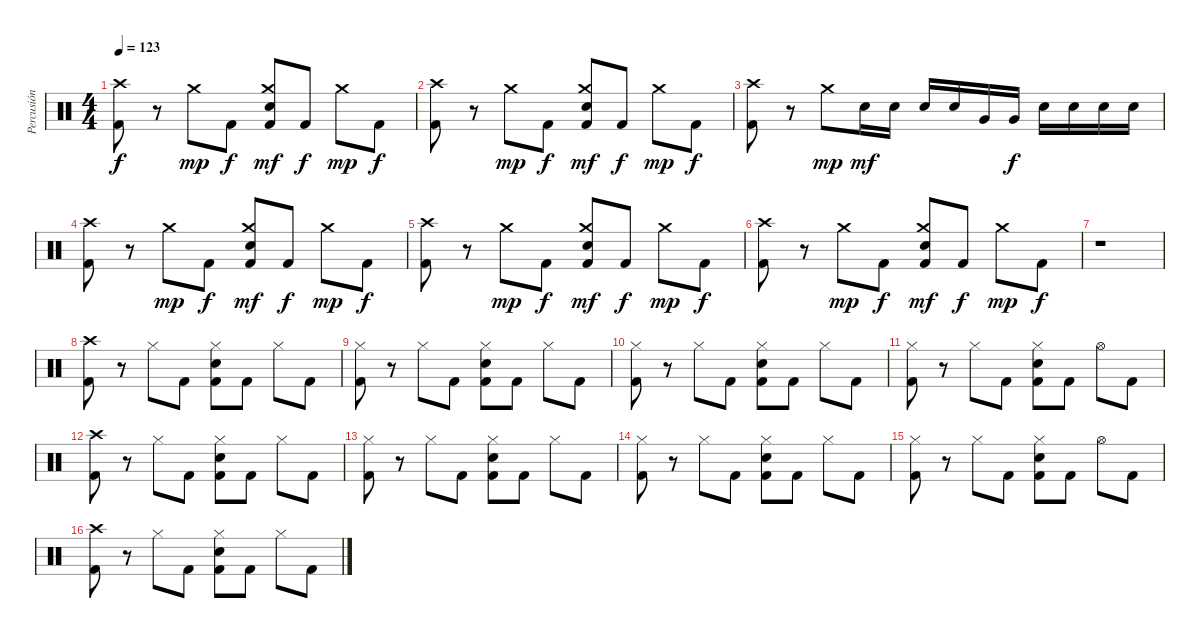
\track ("Percusión" "Percusión") {instrument percussion}
\staff {score}
\articulation defaults
\ts (4 4)
\tempo 123
\clef neutral
\ks c
("Crash high (hit)" "Kick (hit) 2").8{dy f} r.8 "Crash medium (hit)".8{dy mp} "Kick (hit) 2".8{dy f} ("Crash medium (hit)" "Snare (hit) 2" "Kick (hit) 2").8{dy mf} "Kick (hit) 2".8{dy f} "Crash medium (hit)".8{dy mp} "Kick (hit) 2".8{dy f} |
("Crash high (hit)" "Kick (hit) 2").8 r.8 "Crash medium (hit)".8{dy mp} "Kick (hit) 2".8{dy f} ("Crash medium (hit)" "Snare (hit) 2" "Kick (hit) 2").8{dy mf} "Kick (hit) 2".8{dy f} "Crash medium (hit)".8{dy mp} "Kick (hit) 2".8{dy f} |
("Crash high (hit)" "Kick (hit) 2").8 r.8 "Crash medium (hit)".8{dy mp} "Snare (hit) 2".16{dy mf} "Snare (hit) 2".16 "Snare (hit) 2".16 "Snare (hit) 2".16 "Very Low Tom (hit)".16 "Very Low Tom (hit)".16{dy f} "Snare (hit) 2".16 "Snare (hit) 2".16 "Snare (hit) 2".16 "Snare (hit) 2".16 |
("Crash high (hit)" "Kick (hit) 2").8 r.8 "Crash medium (hit)".8{dy mp} "Kick (hit) 2".8{dy f} ("Crash medium (hit)" "Snare (hit) 2" "Kick (hit) 2").8{dy mf} "Kick (hit) 2".8{dy f} "Crash medium (hit)".8{dy mp} "Kick (hit) 2".8{dy f} |
("Crash high (hit)" "Kick (hit) 2").8 r.8 "Crash medium (hit)".8{dy mp} "Kick (hit) 2".8{dy f} ("Crash medium (hit)" "Snare (hit) 2" "Kick (hit) 2").8{dy mf} "Kick (hit) 2".8{dy f} "Crash medium (hit)".8{dy mp} "Kick (hit) 2".8{dy f} |
("Crash high (hit)" "Kick (hit) 2").8 r.8 "Crash medium (hit)".8{dy mp} "Kick (hit) 2".8{dy f} ("Crash medium (hit)" "Snare (hit) 2" "Kick (hit) 2").8{dy mf} "Kick (hit) 2".8{dy f} "Crash medium (hit)".8{dy mp} "Kick (hit) 2".8{dy f} |
r.1 |
("Crash high (hit)" "Kick (hit) 2").8 r.8 "Hi-Hat (closed)".8 "Kick (hit) 2".8 ("Hi-Hat (closed)" "Snare (hit) 2" "Kick (hit) 2").8 "Kick (hit) 2".8 "Hi-Hat (closed)".8 "Kick (hit) 2".8 |
("Hi-Hat (closed)" "Kick (hit) 2").8 r.8 "Hi-Hat (closed)".8 "Kick (hit) 2".8 ("Hi-Hat (closed)" "Snare (hit) 2" "Kick (hit) 2").8 "Kick (hit) 2".8 "Hi-Hat (closed)".8 "Kick (hit) 2".8 |
("Hi-Hat (closed)" "Kick (hit) 2").8 r.8 "Hi-Hat (closed)".8 "Kick (hit) 2".8 ("Hi-Hat (closed)" "Snare (hit) 2" "Kick (hit) 2").8 "Kick (hit) 2".8 "Hi-Hat (closed)".8 "Kick (hit) 2".8 |
("Hi-Hat (closed)" "Kick (hit) 2").8 r.8 "Hi-Hat (closed)".8 "Kick (hit) 2".8 ("Hi-Hat (closed)" "Snare (hit) 2" "Kick (hit) 2").8 "Kick (hit) 2".8 "Hi-Hat (open)".8 "Kick (hit) 2".8 |
("Crash high (hit)" "Kick (hit) 2").8 r.8 "Hi-Hat (closed)".8 "Kick (hit) 2".8 ("Hi-Hat (closed)" "Snare (hit) 2" "Kick (hit) 2").8 "Kick (hit) 2".8 "Hi-Hat (closed)".8 "Kick (hit) 2".8 |
("Hi-Hat (closed)" "Kick (hit) 2").8 r.8 "Hi-Hat (closed)".8 "Kick (hit) 2".8 ("Hi-Hat (closed)" "Snare (hit) 2" "Kick (hit) 2").8 "Kick (hit) 2".8 "Hi-Hat (closed)".8 "Kick (hit) 2".8 |
("Hi-Hat (closed)" "Kick (hit) 2").8 r.8 "Hi-Hat (closed)".8 "Kick (hit) 2".8 ("Hi-Hat (closed)" "Snare (hit) 2" "Kick (hit) 2").8 "Kick (hit) 2".8 "Hi-Hat (closed)".8 "Kick (hit) 2".8 |
("Hi-Hat (closed)" "Kick (hit) 2").8 r.8 "Hi-Hat (closed)".8 "Kick (hit) 2".8 ("Hi-Hat (closed)" "Snare (hit) 2" "Kick (hit) 2").8 "Kick (hit) 2".8 "Hi-Hat (open)".8 "Kick (hit) 2".8 |
("Crash high (hit)" "Kick (hit) 2").8 r.8 "Hi-Hat (closed)".8 "Kick (hit) 2".8 ("Hi-Hat (closed)" "Snare (hit) 2" "Kick (hit) 2").8 "Kick (hit) 2".8 "Hi-Hat (closed)".8 "Kick (hit) 2".8
